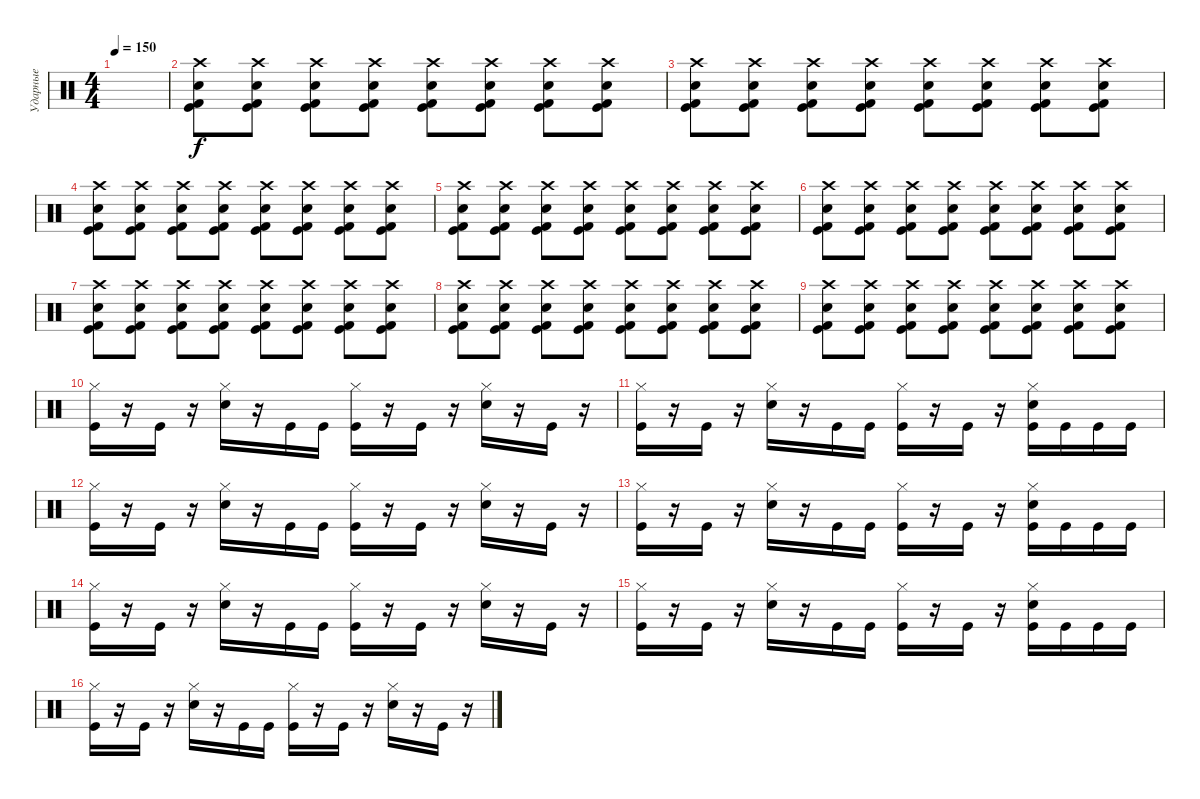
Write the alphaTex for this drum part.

\track ("Ударные" "Ударные") {instrument percussion}
\staff {score}
\articulation defaults
\ts (4 4)
\tempo 150
\clef neutral
\ks c
|
("Crash high (hit)" "Kick (hit)" "Kick (hit) 2" "Electric Snare (hit)").8 ("Crash high (hit)" "Kick (hit)" "Kick (hit) 2" "Electric Snare (hit)").8 ("Crash high (hit)" "Kick (hit)" "Kick (hit) 2" "Electric Snare (hit)").8 ("Crash high (hit)" "Kick (hit)" "Kick (hit) 2" "Electric Snare (hit)").8 ("Crash high (hit)" "Kick (hit)" "Kick (hit) 2" "Electric Snare (hit)").8 ("Crash high (hit)" "Kick (hit)" "Kick (hit) 2" "Electric Snare (hit)").8 ("Crash high (hit)" "Kick (hit)" "Kick (hit) 2" "Electric Snare (hit)").8 ("Crash high (hit)" "Kick (hit)" "Kick (hit) 2" "Electric Snare (hit)").8 |
("Crash high (hit)" "Kick (hit)" "Kick (hit) 2" "Electric Snare (hit)").8 ("Crash high (hit)" "Kick (hit)" "Kick (hit) 2" "Electric Snare (hit)").8 ("Crash high (hit)" "Kick (hit)" "Kick (hit) 2" "Electric Snare (hit)").8 ("Crash high (hit)" "Kick (hit)" "Kick (hit) 2" "Electric Snare (hit)").8 ("Crash high (hit)" "Kick (hit)" "Kick (hit) 2" "Electric Snare (hit)").8 ("Crash high (hit)" "Kick (hit)" "Kick (hit) 2" "Electric Snare (hit)").8 ("Crash high (hit)" "Kick (hit)" "Kick (hit) 2" "Electric Snare (hit)").8 ("Crash high (hit)" "Kick (hit)" "Kick (hit) 2" "Electric Snare (hit)").8 |
("Crash high (hit)" "Kick (hit)" "Kick (hit) 2" "Electric Snare (hit)").8 ("Crash high (hit)" "Kick (hit)" "Kick (hit) 2" "Electric Snare (hit)").8 ("Crash high (hit)" "Kick (hit)" "Kick (hit) 2" "Electric Snare (hit)").8 ("Crash high (hit)" "Kick (hit)" "Kick (hit) 2" "Electric Snare (hit)").8 ("Crash high (hit)" "Kick (hit)" "Kick (hit) 2" "Electric Snare (hit)").8 ("Crash high (hit)" "Kick (hit)" "Kick (hit) 2" "Electric Snare (hit)").8 ("Crash high (hit)" "Kick (hit)" "Kick (hit) 2" "Electric Snare (hit)").8 ("Crash high (hit)" "Kick (hit)" "Kick (hit) 2" "Electric Snare (hit)").8 |
("Crash high (hit)" "Kick (hit)" "Kick (hit) 2" "Electric Snare (hit)").8 ("Crash high (hit)" "Kick (hit)" "Kick (hit) 2" "Electric Snare (hit)").8 ("Crash high (hit)" "Kick (hit)" "Kick (hit) 2" "Electric Snare (hit)").8 ("Crash high (hit)" "Kick (hit)" "Kick (hit) 2" "Electric Snare (hit)").8 ("Crash high (hit)" "Kick (hit)" "Kick (hit) 2" "Electric Snare (hit)").8 ("Crash high (hit)" "Kick (hit)" "Kick (hit) 2" "Electric Snare (hit)").8 ("Crash high (hit)" "Kick (hit)" "Kick (hit) 2" "Electric Snare (hit)").8 ("Crash high (hit)" "Kick (hit)" "Kick (hit) 2" "Electric Snare (hit)").8 |
("Crash high (hit)" "Kick (hit)" "Kick (hit) 2" "Electric Snare (hit)").8 ("Crash high (hit)" "Kick (hit)" "Kick (hit) 2" "Electric Snare (hit)").8 ("Crash high (hit)" "Kick (hit)" "Kick (hit) 2" "Electric Snare (hit)").8 ("Crash high (hit)" "Kick (hit)" "Kick (hit) 2" "Electric Snare (hit)").8 ("Crash high (hit)" "Kick (hit)" "Kick (hit) 2" "Electric Snare (hit)").8 ("Crash high (hit)" "Kick (hit)" "Kick (hit) 2" "Electric Snare (hit)").8 ("Crash high (hit)" "Kick (hit)" "Kick (hit) 2" "Electric Snare (hit)").8 ("Crash high (hit)" "Kick (hit)" "Kick (hit) 2" "Electric Snare (hit)").8 |
("Crash high (hit)" "Kick (hit)" "Kick (hit) 2" "Electric Snare (hit)").8 ("Crash high (hit)" "Kick (hit)" "Kick (hit) 2" "Electric Snare (hit)").8 ("Crash high (hit)" "Kick (hit)" "Kick (hit) 2" "Electric Snare (hit)").8 ("Crash high (hit)" "Kick (hit)" "Kick (hit) 2" "Electric Snare (hit)").8 ("Crash high (hit)" "Kick (hit)" "Kick (hit) 2" "Electric Snare (hit)").8 ("Crash high (hit)" "Kick (hit)" "Kick (hit) 2" "Electric Snare (hit)").8 ("Crash high (hit)" "Kick (hit)" "Kick (hit) 2" "Electric Snare (hit)").8 ("Crash high (hit)" "Kick (hit)" "Kick (hit) 2" "Electric Snare (hit)").8 |
("Crash high (hit)" "Kick (hit)" "Kick (hit) 2" "Electric Snare (hit)").8 ("Crash high (hit)" "Kick (hit)" "Kick (hit) 2" "Electric Snare (hit)").8 ("Crash high (hit)" "Kick (hit)" "Kick (hit) 2" "Electric Snare (hit)").8 ("Crash high (hit)" "Kick (hit)" "Kick (hit) 2" "Electric Snare (hit)").8 ("Crash high (hit)" "Kick (hit)" "Kick (hit) 2" "Electric Snare (hit)").8 ("Crash high (hit)" "Kick (hit)" "Kick (hit) 2" "Electric Snare (hit)").8 ("Crash high (hit)" "Kick (hit)" "Kick (hit) 2" "Electric Snare (hit)").8 ("Crash high (hit)" "Kick (hit)" "Kick (hit) 2" "Electric Snare (hit)").8 |
("Crash high (hit)" "Kick (hit)" "Kick (hit) 2" "Electric Snare (hit)").8 ("Crash high (hit)" "Kick (hit)" "Kick (hit) 2" "Electric Snare (hit)").8 ("Crash high (hit)" "Kick (hit)" "Kick (hit) 2" "Electric Snare (hit)").8 ("Crash high (hit)" "Kick (hit)" "Kick (hit) 2" "Electric Snare (hit)").8 ("Crash high (hit)" "Kick (hit)" "Kick (hit) 2" "Electric Snare (hit)").8 ("Crash high (hit)" "Kick (hit)" "Kick (hit) 2" "Electric Snare (hit)").8 ("Crash high (hit)" "Kick (hit)" "Kick (hit) 2" "Electric Snare (hit)").8 ("Crash high (hit)" "Kick (hit)" "Kick (hit) 2" "Electric Snare (hit)").8 |
("Hi-Hat (closed)" "Kick (hit)").16 r.16 "Kick (hit)".16 r.16 ("Hi-Hat (closed)" "Electric Snare (hit)").16 r.16 "Kick (hit)".16 "Kick (hit)".16 ("Hi-Hat (closed)" "Kick (hit)").16 r.16 "Kick (hit)".16 r.16 ("Hi-Hat (closed)" "Electric Snare (hit)").16 r.16 "Kick (hit)".16 r.16 |
("Hi-Hat (closed)" "Kick (hit)").16 r.16 "Kick (hit)".16 r.16 ("Hi-Hat (closed)" "Electric Snare (hit)").16 r.16 "Kick (hit)".16 "Kick (hit)".16 ("Hi-Hat (closed)" "Kick (hit)").16 r.16 "Kick (hit)".16 r.16 ("Hi-Hat (closed)" "Electric Snare (hit)" "Kick (hit)").16 "Kick (hit)".16 "Kick (hit)".16 "Kick (hit)".16 |
("Hi-Hat (closed)" "Kick (hit)").16 r.16 "Kick (hit)".16 r.16 ("Hi-Hat (closed)" "Electric Snare (hit)").16 r.16 "Kick (hit)".16 "Kick (hit)".16 ("Hi-Hat (closed)" "Kick (hit)").16 r.16 "Kick (hit)".16 r.16 ("Hi-Hat (closed)" "Electric Snare (hit)").16 r.16 "Kick (hit)".16 r.16 |
("Hi-Hat (closed)" "Kick (hit)").16 r.16 "Kick (hit)".16 r.16 ("Hi-Hat (closed)" "Electric Snare (hit)").16 r.16 "Kick (hit)".16 "Kick (hit)".16 ("Hi-Hat (closed)" "Kick (hit)").16 r.16 "Kick (hit)".16 r.16 ("Hi-Hat (closed)" "Electric Snare (hit)" "Kick (hit)").16 "Kick (hit)".16 "Kick (hit)".16 "Kick (hit)".16 |
("Hi-Hat (closed)" "Kick (hit)").16 r.16 "Kick (hit)".16 r.16 ("Hi-Hat (closed)" "Electric Snare (hit)").16 r.16 "Kick (hit)".16 "Kick (hit)".16 ("Hi-Hat (closed)" "Kick (hit)").16 r.16 "Kick (hit)".16 r.16 ("Hi-Hat (closed)" "Electric Snare (hit)").16 r.16 "Kick (hit)".16 r.16 |
("Hi-Hat (closed)" "Kick (hit)").16 r.16 "Kick (hit)".16 r.16 ("Hi-Hat (closed)" "Electric Snare (hit)").16 r.16 "Kick (hit)".16 "Kick (hit)".16 ("Hi-Hat (closed)" "Kick (hit)").16 r.16 "Kick (hit)".16 r.16 ("Hi-Hat (closed)" "Electric Snare (hit)" "Kick (hit)").16 "Kick (hit)".16 "Kick (hit)".16 "Kick (hit)".16 |
("Hi-Hat (closed)" "Kick (hit)").16 r.16 "Kick (hit)".16 r.16 ("Hi-Hat (closed)" "Electric Snare (hit)").16 r.16 "Kick (hit)".16 "Kick (hit)".16 ("Hi-Hat (closed)" "Kick (hit)").16 r.16 "Kick (hit)".16 r.16 ("Hi-Hat (closed)" "Electric Snare (hit)").16 r.16 "Kick (hit)".16 r.16
